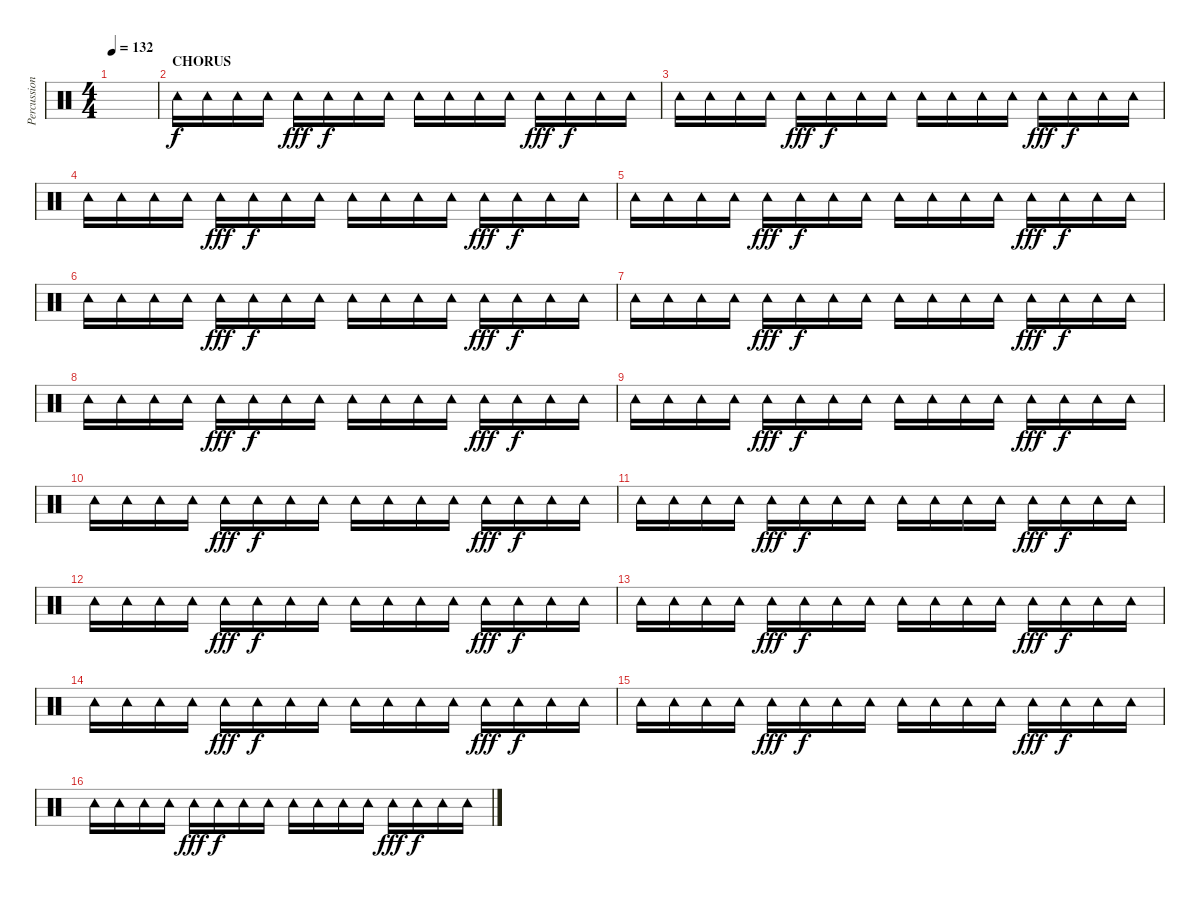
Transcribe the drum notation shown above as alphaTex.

\track ("Percussion" "Percussion") {instrument percussion}
\staff {score}
\articulation defaults
\ts (4 4)
\tempo 132
\clef neutral
\ks c
|
\section ("" "CHORUS")
"Tambourine (hit)".16{dy f} "Tambourine (hit)".16 "Tambourine (hit)".16 "Tambourine (hit)".16 "Tambourine (hit)".16{dy fff} "Tambourine (hit)".16{dy f} "Tambourine (hit)".16 "Tambourine (hit)".16 "Tambourine (hit)".16 "Tambourine (hit)".16 "Tambourine (hit)".16 "Tambourine (hit)".16 "Tambourine (hit)".16{dy fff} "Tambourine (hit)".16{dy f} "Tambourine (hit)".16 "Tambourine (hit)".16 |
"Tambourine (hit)".16 "Tambourine (hit)".16 "Tambourine (hit)".16 "Tambourine (hit)".16 "Tambourine (hit)".16{dy fff} "Tambourine (hit)".16{dy f} "Tambourine (hit)".16 "Tambourine (hit)".16 "Tambourine (hit)".16 "Tambourine (hit)".16 "Tambourine (hit)".16 "Tambourine (hit)".16 "Tambourine (hit)".16{dy fff} "Tambourine (hit)".16{dy f} "Tambourine (hit)".16 "Tambourine (hit)".16 |
"Tambourine (hit)".16 "Tambourine (hit)".16 "Tambourine (hit)".16 "Tambourine (hit)".16 "Tambourine (hit)".16{dy fff} "Tambourine (hit)".16{dy f} "Tambourine (hit)".16 "Tambourine (hit)".16 "Tambourine (hit)".16 "Tambourine (hit)".16 "Tambourine (hit)".16 "Tambourine (hit)".16 "Tambourine (hit)".16{dy fff} "Tambourine (hit)".16{dy f} "Tambourine (hit)".16 "Tambourine (hit)".16 |
"Tambourine (hit)".16 "Tambourine (hit)".16 "Tambourine (hit)".16 "Tambourine (hit)".16 "Tambourine (hit)".16{dy fff} "Tambourine (hit)".16{dy f} "Tambourine (hit)".16 "Tambourine (hit)".16 "Tambourine (hit)".16 "Tambourine (hit)".16 "Tambourine (hit)".16 "Tambourine (hit)".16 "Tambourine (hit)".16{dy fff} "Tambourine (hit)".16{dy f} "Tambourine (hit)".16 "Tambourine (hit)".16 |
"Tambourine (hit)".16 "Tambourine (hit)".16 "Tambourine (hit)".16 "Tambourine (hit)".16 "Tambourine (hit)".16{dy fff} "Tambourine (hit)".16{dy f} "Tambourine (hit)".16 "Tambourine (hit)".16 "Tambourine (hit)".16 "Tambourine (hit)".16 "Tambourine (hit)".16 "Tambourine (hit)".16 "Tambourine (hit)".16{dy fff} "Tambourine (hit)".16{dy f} "Tambourine (hit)".16 "Tambourine (hit)".16 |
"Tambourine (hit)".16 "Tambourine (hit)".16 "Tambourine (hit)".16 "Tambourine (hit)".16 "Tambourine (hit)".16{dy fff} "Tambourine (hit)".16{dy f} "Tambourine (hit)".16 "Tambourine (hit)".16 "Tambourine (hit)".16 "Tambourine (hit)".16 "Tambourine (hit)".16 "Tambourine (hit)".16 "Tambourine (hit)".16{dy fff} "Tambourine (hit)".16{dy f} "Tambourine (hit)".16 "Tambourine (hit)".16 |
"Tambourine (hit)".16 "Tambourine (hit)".16 "Tambourine (hit)".16 "Tambourine (hit)".16 "Tambourine (hit)".16{dy fff} "Tambourine (hit)".16{dy f} "Tambourine (hit)".16 "Tambourine (hit)".16 "Tambourine (hit)".16 "Tambourine (hit)".16 "Tambourine (hit)".16 "Tambourine (hit)".16 "Tambourine (hit)".16{dy fff} "Tambourine (hit)".16{dy f} "Tambourine (hit)".16 "Tambourine (hit)".16 |
"Tambourine (hit)".16 "Tambourine (hit)".16 "Tambourine (hit)".16 "Tambourine (hit)".16 "Tambourine (hit)".16{dy fff} "Tambourine (hit)".16{dy f} "Tambourine (hit)".16 "Tambourine (hit)".16 "Tambourine (hit)".16 "Tambourine (hit)".16 "Tambourine (hit)".16 "Tambourine (hit)".16 "Tambourine (hit)".16{dy fff} "Tambourine (hit)".16{dy f} "Tambourine (hit)".16 "Tambourine (hit)".16 |
"Tambourine (hit)".16 "Tambourine (hit)".16 "Tambourine (hit)".16 "Tambourine (hit)".16 "Tambourine (hit)".16{dy fff} "Tambourine (hit)".16{dy f} "Tambourine (hit)".16 "Tambourine (hit)".16 "Tambourine (hit)".16 "Tambourine (hit)".16 "Tambourine (hit)".16 "Tambourine (hit)".16 "Tambourine (hit)".16{dy fff} "Tambourine (hit)".16{dy f} "Tambourine (hit)".16 "Tambourine (hit)".16 |
"Tambourine (hit)".16 "Tambourine (hit)".16 "Tambourine (hit)".16 "Tambourine (hit)".16 "Tambourine (hit)".16{dy fff} "Tambourine (hit)".16{dy f} "Tambourine (hit)".16 "Tambourine (hit)".16 "Tambourine (hit)".16 "Tambourine (hit)".16 "Tambourine (hit)".16 "Tambourine (hit)".16 "Tambourine (hit)".16{dy fff} "Tambourine (hit)".16{dy f} "Tambourine (hit)".16 "Tambourine (hit)".16 |
"Tambourine (hit)".16 "Tambourine (hit)".16 "Tambourine (hit)".16 "Tambourine (hit)".16 "Tambourine (hit)".16{dy fff} "Tambourine (hit)".16{dy f} "Tambourine (hit)".16 "Tambourine (hit)".16 "Tambourine (hit)".16 "Tambourine (hit)".16 "Tambourine (hit)".16 "Tambourine (hit)".16 "Tambourine (hit)".16{dy fff} "Tambourine (hit)".16{dy f} "Tambourine (hit)".16 "Tambourine (hit)".16 |
"Tambourine (hit)".16 "Tambourine (hit)".16 "Tambourine (hit)".16 "Tambourine (hit)".16 "Tambourine (hit)".16{dy fff} "Tambourine (hit)".16{dy f} "Tambourine (hit)".16 "Tambourine (hit)".16 "Tambourine (hit)".16 "Tambourine (hit)".16 "Tambourine (hit)".16 "Tambourine (hit)".16 "Tambourine (hit)".16{dy fff} "Tambourine (hit)".16{dy f} "Tambourine (hit)".16 "Tambourine (hit)".16 |
"Tambourine (hit)".16 "Tambourine (hit)".16 "Tambourine (hit)".16 "Tambourine (hit)".16 "Tambourine (hit)".16{dy fff} "Tambourine (hit)".16{dy f} "Tambourine (hit)".16 "Tambourine (hit)".16 "Tambourine (hit)".16 "Tambourine (hit)".16 "Tambourine (hit)".16 "Tambourine (hit)".16 "Tambourine (hit)".16{dy fff} "Tambourine (hit)".16{dy f} "Tambourine (hit)".16 "Tambourine (hit)".16 |
"Tambourine (hit)".16 "Tambourine (hit)".16 "Tambourine (hit)".16 "Tambourine (hit)".16 "Tambourine (hit)".16{dy fff} "Tambourine (hit)".16{dy f} "Tambourine (hit)".16 "Tambourine (hit)".16 "Tambourine (hit)".16 "Tambourine (hit)".16 "Tambourine (hit)".16 "Tambourine (hit)".16 "Tambourine (hit)".16{dy fff} "Tambourine (hit)".16{dy f} "Tambourine (hit)".16 "Tambourine (hit)".16 |
"Tambourine (hit)".16 "Tambourine (hit)".16 "Tambourine (hit)".16 "Tambourine (hit)".16 "Tambourine (hit)".16{dy fff} "Tambourine (hit)".16{dy f} "Tambourine (hit)".16 "Tambourine (hit)".16 "Tambourine (hit)".16 "Tambourine (hit)".16 "Tambourine (hit)".16 "Tambourine (hit)".16 "Tambourine (hit)".16{dy fff} "Tambourine (hit)".16{dy f} "Tambourine (hit)".16 "Tambourine (hit)".16
